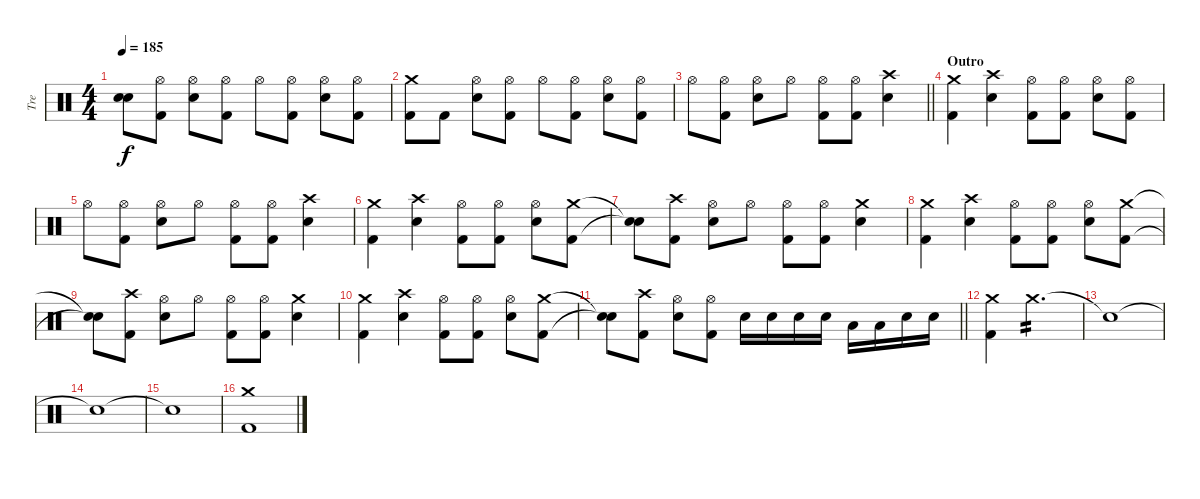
\track ("Tre" "Tre") {instrument percussion}
\staff {score}
\articulation defaults
\ts (4 4)
\tempo 185
\clef neutral
\ks c
("Snare (hit)"{t} "Snare (hit)"{t}).8{dy f} ("Hi-Hat (open)" "Kick (hit) 2").8 ("Hi-Hat (open)" "Electric Snare (hit)").8 ("Hi-Hat (open)" "Kick (hit) 2").8 "Hi-Hat (open)".8 ("Hi-Hat (open)" "Kick (hit) 2").8 ("Hi-Hat (open)" "Electric Snare (hit)").8 ("Hi-Hat (open)" "Kick (hit) 2").8 |
("Crash medium (hit)" "Kick (hit) 2").8 "Kick (hit) 2".8 ("Hi-Hat (open)" "Electric Snare (hit)").8 ("Hi-Hat (open)" "Kick (hit) 2").8 "Hi-Hat (open)".8 ("Hi-Hat (open)" "Kick (hit) 2").8 ("Hi-Hat (open)" "Electric Snare (hit)").8 ("Hi-Hat (open)" "Kick (hit) 2").8 |
\barLineRight lightlight "Hi-Hat (open)".8
("Hi-Hat (open)" "Kick (hit) 2").8 ("Hi-Hat (open)" "Electric Snare (hit)").8 "Hi-Hat (open)".8 ("Hi-Hat (open)" "Kick (hit) 2").8 ("Hi-Hat (open)" "Kick (hit) 2").8 ("Crash high (hit)" "Electric Snare (hit)").4 |
\section ("" "Outro")
("Crash medium (hit)" "Kick (hit) 2").4 ("Crash high (hit)" "Electric Snare (hit)").4 ("Hi-Hat (open)" "Kick (hit) 2").8 ("Hi-Hat (open)" "Kick (hit) 2").8 ("Hi-Hat (open)" "Electric Snare (hit)").8 ("Hi-Hat (open)" "Kick (hit) 2").8 |
"Hi-Hat (open)".8 ("Hi-Hat (open)" "Kick (hit) 2").8 ("Hi-Hat (open)" "Electric Snare (hit)").8 "Hi-Hat (open)".8 ("Hi-Hat (open)" "Kick (hit) 2").8 ("Hi-Hat (open)" "Kick (hit) 2").8 ("Crash high (hit)" "Electric Snare (hit)").4 |
("Crash medium (hit)" "Kick (hit) 2").4 ("Crash high (hit)" "Electric Snare (hit)").4 ("Hi-Hat (open)" "Kick (hit) 2").8 ("Hi-Hat (open)" "Kick (hit) 2").8 ("Hi-Hat (open)" "Electric Snare (hit)").8 ("Crash medium (hit)" "Kick (hit) 2").8 |
("Snare (hit)"{t} "Snare (hit)"{t}).8 ("Crash high (hit)" "Kick (hit) 2").8 ("Hi-Hat (open)" "Electric Snare (hit)").8 "Hi-Hat (open)".8 ("Hi-Hat (open)" "Kick (hit) 2").8 ("Hi-Hat (open)" "Kick (hit) 2").8 ("Crash medium (hit)" "Electric Snare (hit)").4 |
("Crash medium (hit)" "Kick (hit) 2").4 ("Crash high (hit)" "Electric Snare (hit)").4 ("Hi-Hat (open)" "Kick (hit) 2").8 ("Hi-Hat (open)" "Kick (hit) 2").8 ("Hi-Hat (open)" "Electric Snare (hit)").8 ("Crash medium (hit)" "Kick (hit) 2").8 |
("Snare (hit)"{t} "Snare (hit)"{t}).8 ("Crash high (hit)" "Kick (hit) 2").8 ("Hi-Hat (open)" "Electric Snare (hit)").8 "Hi-Hat (open)".8 ("Hi-Hat (open)" "Kick (hit) 2").8 ("Hi-Hat (open)" "Kick (hit) 2").8 ("Crash medium (hit)" "Electric Snare (hit)").4 |
("Crash medium (hit)" "Kick (hit) 2").4 ("Crash high (hit)" "Electric Snare (hit)").4 ("Hi-Hat (open)" "Kick (hit) 2").8 ("Hi-Hat (open)" "Kick (hit) 2").8 ("Hi-Hat (open)" "Electric Snare (hit)").8 ("Crash medium (hit)" "Kick (hit) 2").8 |
\barLineRight lightlight
("Snare (hit)"{t} "Snare (hit)"{t}).8 ("Crash high (hit)" "Kick (hit) 2").8 ("Hi-Hat (open)" "Electric Snare (hit)").8 ("Hi-Hat (open)" "Kick (hit) 2").8 "Electric Snare (hit)".16 "Electric Snare (hit)".16 "Electric Snare (hit)".16 "Electric Snare (hit)".16 "Low Tom (hit)".16 "Low Tom (hit)".16 "Electric Snare (hit)".16 "Electric Snare (hit)".16 |
("Crash medium (hit)" "Kick (hit) 2").4 "Crash medium (hit)".2{d tp 2} |
"Snare (hit)"{t}.1 |
"Snare (hit)"{t}.1 |
"Snare (hit)"{t}.1 |
("Crash medium (hit)" "Kick (hit) 2").1
